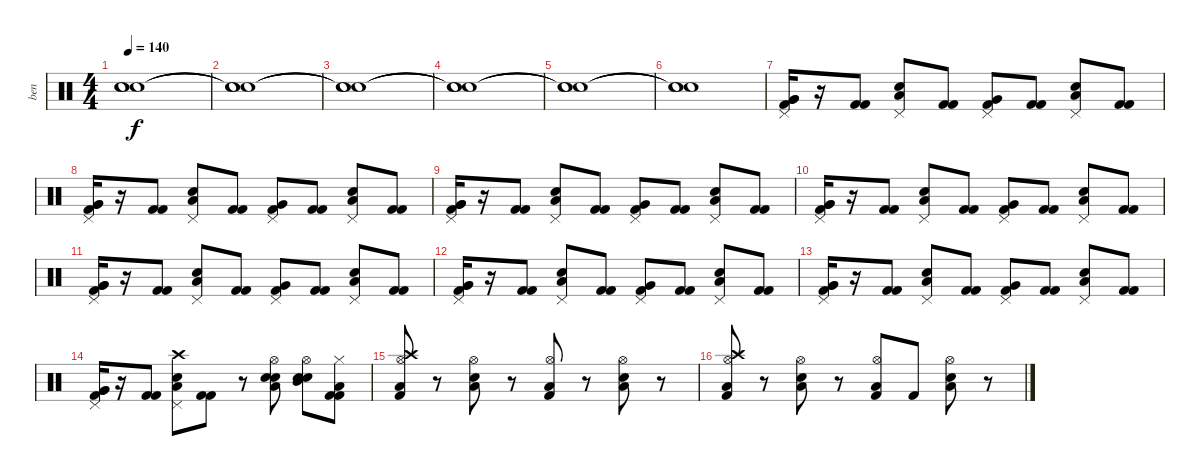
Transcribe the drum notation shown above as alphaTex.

\track ("ben" "ben") {instrument percussion}
\staff {score}
\articulation defaults
\ts (4 4)
\tempo 140
\clef neutral
\ks c
("Snare (hit)"{t} "Snare (hit)"{t} "Snare (hit)"{t}).1{dy f} |
("Snare (hit)"{t} "Snare (hit)"{t} "Snare (hit)"{t}).1 |
("Snare (hit)"{t} "Snare (hit)"{t} "Snare (hit)"{t}).1 |
("Snare (hit)"{t} "Snare (hit)"{t} "Snare (hit)"{t}).1 |
("Snare (hit)"{t} "Snare (hit)"{t} "Snare (hit)"{t}).1 |
("Snare (hit)"{t} "Snare (hit)"{t} "Snare (hit)"{t}).1 |
("Very Low Tom (hit)" "Very Low Tom (hit)" "Pedal Hi-Hat (hit)" "Kick (hit) 2").16 r.16 ("Kick (hit) 2" "Kick (hit) 2").8 ("Electric Snare (hit)" "Low Tom (hit)" "Pedal Hi-Hat (hit)").8 ("Kick (hit) 2" "Kick (hit) 2").8 ("Kick (hit) 2" "Very Low Tom (hit)" "Pedal Hi-Hat (hit)").8 ("Kick (hit) 2" "Kick (hit) 2").8 ("Electric Snare (hit)" "Low Tom (hit)" "Pedal Hi-Hat (hit)").8 ("Kick (hit) 2" "Kick (hit) 2").8 |
("Very Low Tom (hit)" "Very Low Tom (hit)" "Pedal Hi-Hat (hit)" "Kick (hit) 2").16 r.16 ("Kick (hit) 2" "Kick (hit) 2").8 ("Electric Snare (hit)" "Low Tom (hit)" "Pedal Hi-Hat (hit)").8 ("Kick (hit) 2" "Kick (hit) 2").8 ("Kick (hit) 2" "Very Low Tom (hit)" "Pedal Hi-Hat (hit)").8 ("Kick (hit) 2" "Kick (hit) 2").8 ("Electric Snare (hit)" "Low Tom (hit)" "Pedal Hi-Hat (hit)").8 ("Kick (hit) 2" "Kick (hit) 2").8 |
("Very Low Tom (hit)" "Very Low Tom (hit)" "Pedal Hi-Hat (hit)" "Kick (hit) 2").16 r.16 ("Kick (hit) 2" "Kick (hit) 2").8 ("Electric Snare (hit)" "Low Tom (hit)" "Pedal Hi-Hat (hit)").8 ("Kick (hit) 2" "Kick (hit) 2").8 ("Kick (hit) 2" "Very Low Tom (hit)" "Pedal Hi-Hat (hit)").8 ("Kick (hit) 2" "Kick (hit) 2").8 ("Electric Snare (hit)" "Low Tom (hit)" "Pedal Hi-Hat (hit)").8 ("Kick (hit) 2" "Kick (hit) 2").8 |
("Very Low Tom (hit)" "Very Low Tom (hit)" "Pedal Hi-Hat (hit)" "Kick (hit) 2").16 r.16 ("Kick (hit) 2" "Kick (hit) 2").8 ("Electric Snare (hit)" "Low Tom (hit)" "Pedal Hi-Hat (hit)").8 ("Kick (hit) 2" "Kick (hit) 2").8 ("Kick (hit) 2" "Very Low Tom (hit)" "Pedal Hi-Hat (hit)").8 ("Kick (hit) 2" "Kick (hit) 2").8 ("Electric Snare (hit)" "Low Tom (hit)" "Pedal Hi-Hat (hit)").8 ("Kick (hit) 2" "Kick (hit) 2").8 |
("Very Low Tom (hit)" "Very Low Tom (hit)" "Pedal Hi-Hat (hit)" "Kick (hit) 2").16 r.16 ("Kick (hit) 2" "Kick (hit) 2").8 ("Electric Snare (hit)" "Low Tom (hit)" "Pedal Hi-Hat (hit)").8 ("Kick (hit) 2" "Kick (hit) 2").8 ("Kick (hit) 2" "Very Low Tom (hit)" "Pedal Hi-Hat (hit)").8 ("Kick (hit) 2" "Kick (hit) 2").8 ("Electric Snare (hit)" "Low Tom (hit)" "Pedal Hi-Hat (hit)").8 ("Kick (hit) 2" "Kick (hit) 2").8 |
("Very Low Tom (hit)" "Very Low Tom (hit)" "Pedal Hi-Hat (hit)" "Kick (hit) 2").16 r.16 ("Kick (hit) 2" "Kick (hit) 2").8 ("Electric Snare (hit)" "Low Tom (hit)" "Pedal Hi-Hat (hit)").8 ("Kick (hit) 2" "Kick (hit) 2").8 ("Kick (hit) 2" "Very Low Tom (hit)" "Pedal Hi-Hat (hit)").8 ("Kick (hit) 2" "Kick (hit) 2").8 ("Electric Snare (hit)" "Low Tom (hit)" "Pedal Hi-Hat (hit)").8 ("Kick (hit) 2" "Kick (hit) 2").8 |
("Very Low Tom (hit)" "Very Low Tom (hit)" "Pedal Hi-Hat (hit)" "Kick (hit) 2").16 r.16 ("Kick (hit) 2" "Kick (hit) 2").8 ("Electric Snare (hit)" "Low Tom (hit)" "Pedal Hi-Hat (hit)").8 ("Kick (hit) 2" "Kick (hit) 2").8 ("Kick (hit) 2" "Very Low Tom (hit)" "Pedal Hi-Hat (hit)").8 ("Kick (hit) 2" "Kick (hit) 2").8 ("Electric Snare (hit)" "Low Tom (hit)" "Pedal Hi-Hat (hit)").8 ("Kick (hit) 2" "Kick (hit) 2").8 |
("Very Low Tom (hit)" "Very Low Tom (hit)" "Pedal Hi-Hat (hit)" "Kick (hit) 2").16 r.16 ("Kick (hit) 2" "Kick (hit) 2").8 ("Electric Snare (hit)" "Low Tom (hit)" "Pedal Hi-Hat (hit)" "Crash high (hit)").8 ("Kick (hit) 2" "Kick (hit) 2").8 r.8 ("Low Tom (hit)" "Electric Snare (hit)" "Electric Snare (hit)" "Hi-Hat (open)").8 ("Mid Tom (hit)" "Electric Snare (hit)" "Electric Snare (hit)" "Hi-Hat (open)").8 ("Low Tom (hit)" "Kick (hit) 2" "Kick (hit) 2" "Hi-Hat (closed)").8 |
("Hi-Hat (open)" "Kick (hit) 2" "Crash high (hit)" "Low Floor Tom (hit)").8 r.8 ("Hi-Hat (open)" "Electric Snare (hit)" "Low Floor Tom (hit)").8 r.8 ("Hi-Hat (open)" "Kick (hit) 2" "Low Floor Tom (hit)").8 r.8 ("Hi-Hat (open)" "Electric Snare (hit)" "Low Floor Tom (hit)").8 r.8 |
("Hi-Hat (open)" "Kick (hit) 2" "Crash high (hit)" "Low Floor Tom (hit)").8 r.8 ("Hi-Hat (open)" "Electric Snare (hit)" "Low Floor Tom (hit)").8 r.8 ("Hi-Hat (open)" "Kick (hit) 2" "Low Floor Tom (hit)").8 "Kick (hit) 2".8 ("Hi-Hat (open)" "Electric Snare (hit)" "Low Floor Tom (hit)").8 r.8
